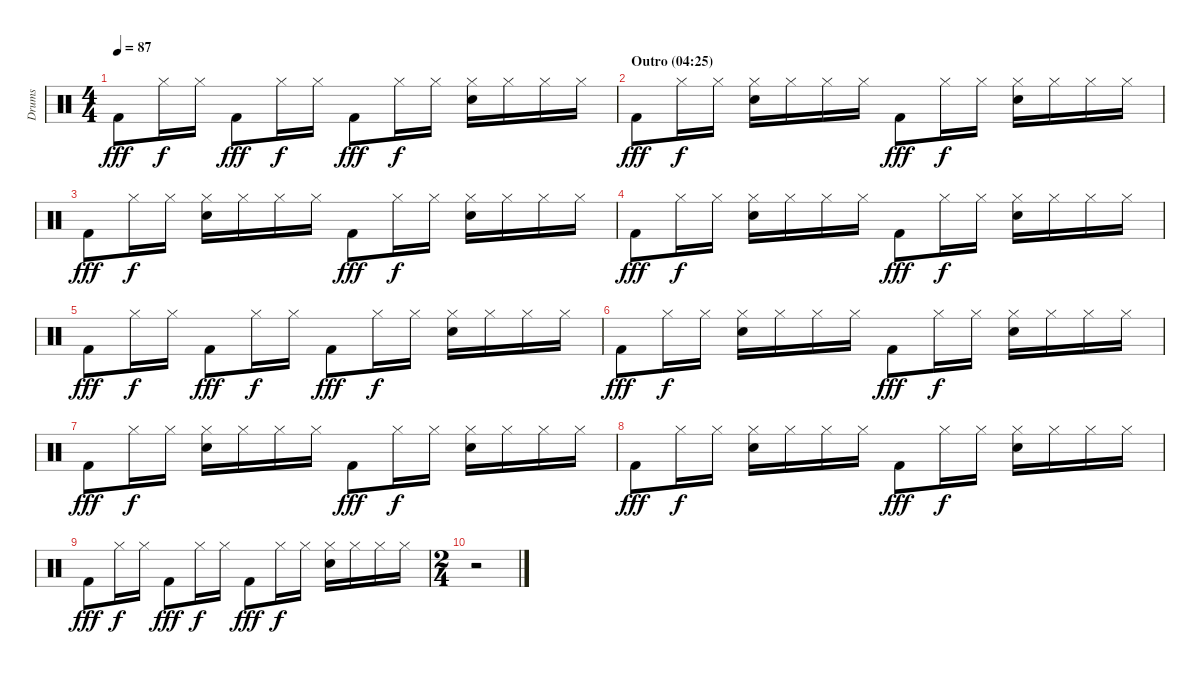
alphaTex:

\track ("Drums" "Drums") {instrument percussion}
\staff {score}
\articulation defaults
\ts (4 4)
\tempo 87
\clef neutral
\ks c "Kick (hit) 2".8{dy fff} "Hi-Hat (closed)".16{dy f} "Hi-Hat (closed)".16 "Kick (hit) 2".8{dy fff} "Hi-Hat (closed)".16{dy f} "Hi-Hat (closed)".16 "Kick (hit) 2".8{dy fff} "Hi-Hat (closed)".16{dy f} "Hi-Hat (closed)".16
("Hi-Hat (closed)" "Electric Snare (hit)").16 "Hi-Hat (closed)".16 "Hi-Hat (closed)".16 "Hi-Hat (closed)".16 |
\section ("" "Outro (04:25)")
"Kick (hit) 2".8{dy fff} "Hi-Hat (closed)".16{dy f} "Hi-Hat (closed)".16 ("Hi-Hat (closed)" "Electric Snare (hit)").16 "Hi-Hat (closed)".16 "Hi-Hat (closed)".16 "Hi-Hat (closed)".16 "Kick (hit) 2".8{dy fff} "Hi-Hat (closed)".16{dy f} "Hi-Hat (closed)".16 ("Hi-Hat (closed)" "Electric Snare (hit)").16 "Hi-Hat (closed)".16 "Hi-Hat (closed)".16 "Hi-Hat (closed)".16 |
"Kick (hit) 2".8{dy fff} "Hi-Hat (closed)".16{dy f} "Hi-Hat (closed)".16 ("Hi-Hat (closed)" "Electric Snare (hit)").16 "Hi-Hat (closed)".16 "Hi-Hat (closed)".16 "Hi-Hat (closed)".16 "Kick (hit) 2".8{dy fff} "Hi-Hat (closed)".16{dy f} "Hi-Hat (closed)".16 ("Hi-Hat (closed)" "Electric Snare (hit)").16 "Hi-Hat (closed)".16 "Hi-Hat (closed)".16 "Hi-Hat (closed)".16 |
"Kick (hit) 2".8{dy fff} "Hi-Hat (closed)".16{dy f} "Hi-Hat (closed)".16 ("Hi-Hat (closed)" "Electric Snare (hit)").16 "Hi-Hat (closed)".16 "Hi-Hat (closed)".16 "Hi-Hat (closed)".16 "Kick (hit) 2".8{dy fff} "Hi-Hat (closed)".16{dy f} "Hi-Hat (closed)".16 ("Hi-Hat (closed)" "Electric Snare (hit)").16 "Hi-Hat (closed)".16 "Hi-Hat (closed)".16 "Hi-Hat (closed)".16 |
"Kick (hit) 2".8{dy fff} "Hi-Hat (closed)".16{dy f} "Hi-Hat (closed)".16 "Kick (hit) 2".8{dy fff} "Hi-Hat (closed)".16{dy f} "Hi-Hat (closed)".16 "Kick (hit) 2".8{dy fff} "Hi-Hat (closed)".16{dy f} "Hi-Hat (closed)".16 ("Hi-Hat (closed)" "Electric Snare (hit)").16 "Hi-Hat (closed)".16 "Hi-Hat (closed)".16 "Hi-Hat (closed)".16 |
"Kick (hit) 2".8{dy fff volume 0} "Hi-Hat (closed)".16{dy f} "Hi-Hat (closed)".16 ("Hi-Hat (closed)" "Electric Snare (hit)").16 "Hi-Hat (closed)".16 "Hi-Hat (closed)".16 "Hi-Hat (closed)".16 "Kick (hit) 2".8{dy fff} "Hi-Hat (closed)".16{dy f} "Hi-Hat (closed)".16 ("Hi-Hat (closed)" "Electric Snare (hit)").16 "Hi-Hat (closed)".16 "Hi-Hat (closed)".16 "Hi-Hat (closed)".16 |
"Kick (hit) 2".8{dy fff} "Hi-Hat (closed)".16{dy f} "Hi-Hat (closed)".16 ("Hi-Hat (closed)" "Electric Snare (hit)").16 "Hi-Hat (closed)".16 "Hi-Hat (closed)".16 "Hi-Hat (closed)".16 "Kick (hit) 2".8{dy fff} "Hi-Hat (closed)".16{dy f} "Hi-Hat (closed)".16 ("Hi-Hat (closed)" "Electric Snare (hit)").16 "Hi-Hat (closed)".16 "Hi-Hat (closed)".16 "Hi-Hat (closed)".16 |
"Kick (hit) 2".8{dy fff} "Hi-Hat (closed)".16{dy f} "Hi-Hat (closed)".16 ("Hi-Hat (closed)" "Electric Snare (hit)").16 "Hi-Hat (closed)".16 "Hi-Hat (closed)".16 "Hi-Hat (closed)".16 "Kick (hit) 2".8{dy fff} "Hi-Hat (closed)".16{dy f} "Hi-Hat (closed)".16 ("Hi-Hat (closed)" "Electric Snare (hit)").16 "Hi-Hat (closed)".16 "Hi-Hat (closed)".16 "Hi-Hat (closed)".16 |
"Kick (hit) 2".8{dy fff} "Hi-Hat (closed)".16{dy f} "Hi-Hat (closed)".16 "Kick (hit) 2".8{dy fff} "Hi-Hat (closed)".16{dy f} "Hi-Hat (closed)".16 "Kick (hit) 2".8{dy fff} "Hi-Hat (closed)".16{dy f} "Hi-Hat (closed)".16 ("Hi-Hat (closed)" "Electric Snare (hit)").16 "Hi-Hat (closed)".16 "Hi-Hat (closed)".16 "Hi-Hat (closed)".16 |
\ts (2 4)
r.2
